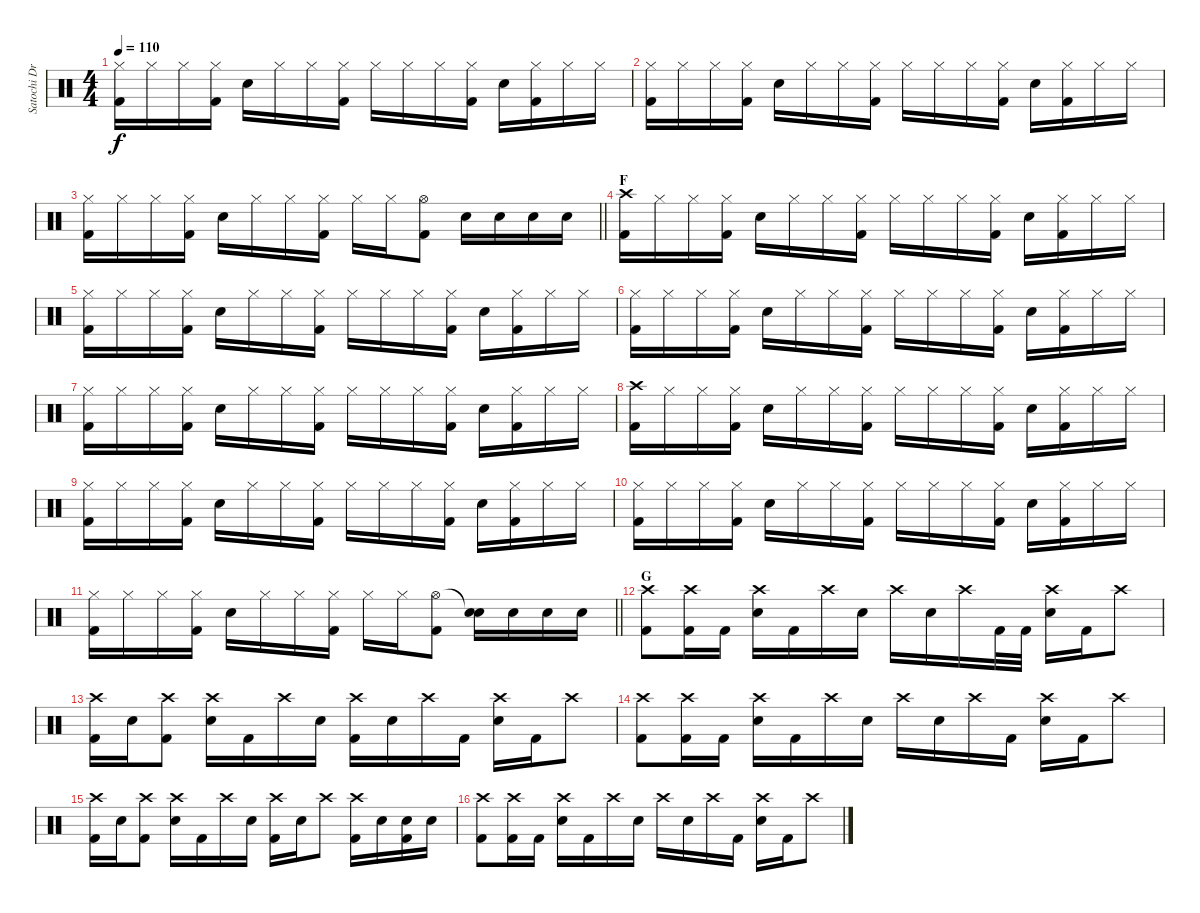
\track ("Satochi Drums" "Satochi Dr") {instrument percussion}
\staff {score}
\articulation defaults
\ts (4 4)
\tempo 110
\clef neutral
\ks c
("Hi-Hat (closed)" "Kick (hit) 2").16{dy f} "Hi-Hat (closed)".16 "Hi-Hat (closed)".16 ("Hi-Hat (closed)" "Kick (hit) 2").16 "Snare (hit) 2".16 "Hi-Hat (closed)".16 "Hi-Hat (closed)".16 ("Hi-Hat (closed)" "Kick (hit) 2").16 "Hi-Hat (closed)".16 "Hi-Hat (closed)".16 "Hi-Hat (closed)".16 ("Hi-Hat (closed)" "Kick (hit) 2").16 "Snare (hit) 2".16 ("Hi-Hat (closed)" "Kick (hit) 2").16 "Hi-Hat (closed)".16 "Hi-Hat (closed)".16 |
("Hi-Hat (closed)" "Kick (hit) 2").16 "Hi-Hat (closed)".16 "Hi-Hat (closed)".16 ("Hi-Hat (closed)" "Kick (hit) 2").16 "Snare (hit) 2".16 "Hi-Hat (closed)".16 "Hi-Hat (closed)".16 ("Hi-Hat (closed)" "Kick (hit) 2").16 "Hi-Hat (closed)".16 "Hi-Hat (closed)".16 "Hi-Hat (closed)".16 ("Hi-Hat (closed)" "Kick (hit) 2").16 "Snare (hit) 2".16 ("Hi-Hat (closed)" "Kick (hit) 2").16 "Hi-Hat (closed)".16 "Hi-Hat (closed)".16 |
\barLineRight lightlight
("Hi-Hat (closed)" "Kick (hit) 2").16 "Hi-Hat (closed)".16 "Hi-Hat (closed)".16 ("Hi-Hat (closed)" "Kick (hit) 2").16 "Snare (hit) 2".16 "Hi-Hat (closed)".16 "Hi-Hat (closed)".16 ("Hi-Hat (closed)" "Kick (hit) 2").16 "Hi-Hat (closed)".16 "Hi-Hat (closed)".16 ("Hi-Hat (open)" "Kick (hit) 2").8 "Snare (hit) 2".16 "Snare (hit) 2".16 "Snare (hit) 2".16 "Snare (hit) 2".16 |
\section ("" "F")
("Crash high (hit)" "Kick (hit) 2").16 "Hi-Hat (closed)".16 "Hi-Hat (closed)".16 ("Hi-Hat (closed)" "Kick (hit) 2").16 "Snare (hit) 2".16 "Hi-Hat (closed)".16 "Hi-Hat (closed)".16 ("Hi-Hat (closed)" "Kick (hit) 2").16 "Hi-Hat (closed)".16 "Hi-Hat (closed)".16 "Hi-Hat (closed)".16 ("Hi-Hat (closed)" "Kick (hit) 2").16 "Snare (hit) 2".16 ("Hi-Hat (closed)" "Kick (hit) 2").16 "Hi-Hat (closed)".16 "Hi-Hat (closed)".16 |
("Hi-Hat (closed)" "Kick (hit) 2").16 "Hi-Hat (closed)".16 "Hi-Hat (closed)".16 ("Hi-Hat (closed)" "Kick (hit) 2").16 "Snare (hit) 2".16 "Hi-Hat (closed)".16 "Hi-Hat (closed)".16 ("Hi-Hat (closed)" "Kick (hit) 2").16 "Hi-Hat (closed)".16 "Hi-Hat (closed)".16 "Hi-Hat (closed)".16 ("Hi-Hat (closed)" "Kick (hit) 2").16 "Snare (hit) 2".16 ("Hi-Hat (closed)" "Kick (hit) 2").16 "Hi-Hat (closed)".16 "Hi-Hat (closed)".16 |
("Hi-Hat (closed)" "Kick (hit) 2").16 "Hi-Hat (closed)".16 "Hi-Hat (closed)".16 ("Hi-Hat (closed)" "Kick (hit) 2").16 "Snare (hit) 2".16 "Hi-Hat (closed)".16 "Hi-Hat (closed)".16 ("Hi-Hat (closed)" "Kick (hit) 2").16 "Hi-Hat (closed)".16 "Hi-Hat (closed)".16 "Hi-Hat (closed)".16 ("Hi-Hat (closed)" "Kick (hit) 2").16 "Snare (hit) 2".16 ("Hi-Hat (closed)" "Kick (hit) 2").16 "Hi-Hat (closed)".16 "Hi-Hat (closed)".16 |
("Hi-Hat (closed)" "Kick (hit) 2").16 "Hi-Hat (closed)".16 "Hi-Hat (closed)".16 ("Hi-Hat (closed)" "Kick (hit) 2").16 "Snare (hit) 2".16 "Hi-Hat (closed)".16 "Hi-Hat (closed)".16 ("Hi-Hat (closed)" "Kick (hit) 2").16 "Hi-Hat (closed)".16 "Hi-Hat (closed)".16 "Hi-Hat (closed)".16 ("Hi-Hat (closed)" "Kick (hit) 2").16 "Snare (hit) 2".16 ("Hi-Hat (closed)" "Kick (hit) 2").16 "Hi-Hat (closed)".16 "Hi-Hat (closed)".16 |
("Crash high (hit)" "Kick (hit) 2").16 "Hi-Hat (closed)".16 "Hi-Hat (closed)".16 ("Hi-Hat (closed)" "Kick (hit) 2").16 "Snare (hit) 2".16 "Hi-Hat (closed)".16 "Hi-Hat (closed)".16 ("Hi-Hat (closed)" "Kick (hit) 2").16 "Hi-Hat (closed)".16 "Hi-Hat (closed)".16 "Hi-Hat (closed)".16 ("Hi-Hat (closed)" "Kick (hit) 2").16 "Snare (hit) 2".16 ("Hi-Hat (closed)" "Kick (hit) 2").16 "Hi-Hat (closed)".16 "Hi-Hat (closed)".16 |
("Hi-Hat (closed)" "Kick (hit) 2").16 "Hi-Hat (closed)".16 "Hi-Hat (closed)".16 ("Hi-Hat (closed)" "Kick (hit) 2").16 "Snare (hit) 2".16 "Hi-Hat (closed)".16 "Hi-Hat (closed)".16 ("Hi-Hat (closed)" "Kick (hit) 2").16 "Hi-Hat (closed)".16 "Hi-Hat (closed)".16 "Hi-Hat (closed)".16 ("Hi-Hat (closed)" "Kick (hit) 2").16 "Snare (hit) 2".16 ("Hi-Hat (closed)" "Kick (hit) 2").16 "Hi-Hat (closed)".16 "Hi-Hat (closed)".16 |
("Hi-Hat (closed)" "Kick (hit) 2").16 "Hi-Hat (closed)".16 "Hi-Hat (closed)".16 ("Hi-Hat (closed)" "Kick (hit) 2").16 "Snare (hit) 2".16 "Hi-Hat (closed)".16 "Hi-Hat (closed)".16 ("Hi-Hat (closed)" "Kick (hit) 2").16 "Hi-Hat (closed)".16 "Hi-Hat (closed)".16 "Hi-Hat (closed)".16 ("Hi-Hat (closed)" "Kick (hit) 2").16 "Snare (hit) 2".16 ("Hi-Hat (closed)" "Kick (hit) 2").16 "Hi-Hat (closed)".16 "Hi-Hat (closed)".16 |
\barLineRight lightlight
("Hi-Hat (closed)" "Kick (hit) 2").16 "Hi-Hat (closed)".16 "Hi-Hat (closed)".16 ("Hi-Hat (closed)" "Kick (hit) 2").16 "Snare (hit) 2".16 "Hi-Hat (closed)".16 "Hi-Hat (closed)".16 ("Hi-Hat (closed)" "Kick (hit) 2").16 "Hi-Hat (closed)".16 "Hi-Hat (closed)".16 ("Hi-Hat (open)" "Kick (hit) 2").8 ("Snare (hit)"{t} "Snare (hit) 2").16 "Snare (hit) 2".16 "Snare (hit) 2".16 "Snare (hit) 2".16 |
\section ("" "G")
("Crash high (hit)" "Kick (hit) 2").8 ("Crash high (hit)" "Kick (hit) 2").16 "Kick (hit) 2".16 ("Crash high (hit)" "Snare (hit) 2").16 "Kick (hit) 2".16 "Crash high (hit)".16 "Snare (hit) 2".16 "Crash high (hit)".16 "Snare (hit) 2".16 "Crash high (hit)".16 "Kick (hit) 2".32 "Kick (hit) 2".32 ("Crash high (hit)" "Snare (hit) 2").16 "Kick (hit) 2".16 "Crash high (hit)".8 |
("Crash high (hit)" "Kick (hit) 2").16 "Snare (hit) 2".16 ("Crash high (hit)" "Kick (hit) 2").8 ("Crash high (hit)" "Snare (hit) 2").16 "Kick (hit) 2".16 "Crash high (hit)".16 "Snare (hit) 2".16 ("Crash high (hit)" "Kick (hit) 2").16 "Snare (hit) 2".16 "Crash high (hit)".16 "Kick (hit) 2".16 ("Crash high (hit)" "Snare (hit) 2").16 "Kick (hit) 2".16 "Crash high (hit)".8 |
("Crash high (hit)" "Kick (hit) 2").8 ("Crash high (hit)" "Kick (hit) 2").16 "Kick (hit) 2".16 ("Crash high (hit)" "Snare (hit) 2").16 "Kick (hit) 2".16 "Crash high (hit)".16 "Snare (hit) 2".16 "Crash high (hit)".16 "Snare (hit) 2".16 "Crash high (hit)".16 "Kick (hit) 2".16 ("Crash high (hit)" "Snare (hit) 2").16 "Kick (hit) 2".16 "Crash high (hit)".8 |
("Crash high (hit)" "Kick (hit) 2").16 "Snare (hit) 2".16 ("Crash high (hit)" "Kick (hit) 2").8 ("Crash high (hit)" "Snare (hit) 2").16 "Kick (hit) 2".16 "Crash high (hit)".16 "Snare (hit) 2".16 ("Crash high (hit)" "Kick (hit) 2").16 "Snare (hit) 2".16 "Crash high (hit)".8 ("Crash high (hit)" "Kick (hit) 2").16 "Snare (hit) 2".16 ("Snare (hit) 2" "Kick (hit) 2").16 "Snare (hit) 2".16 |
("Crash high (hit)" "Kick (hit) 2").8 ("Crash high (hit)" "Kick (hit) 2").16 "Kick (hit) 2".16 ("Crash high (hit)" "Snare (hit) 2").16 "Kick (hit) 2".16 "Crash high (hit)".16 "Snare (hit) 2".16 "Crash high (hit)".16 "Snare (hit) 2".16 "Crash high (hit)".16 "Kick (hit) 2".16 ("Crash high (hit)" "Snare (hit) 2").16 "Kick (hit) 2".16 "Crash high (hit)".8
